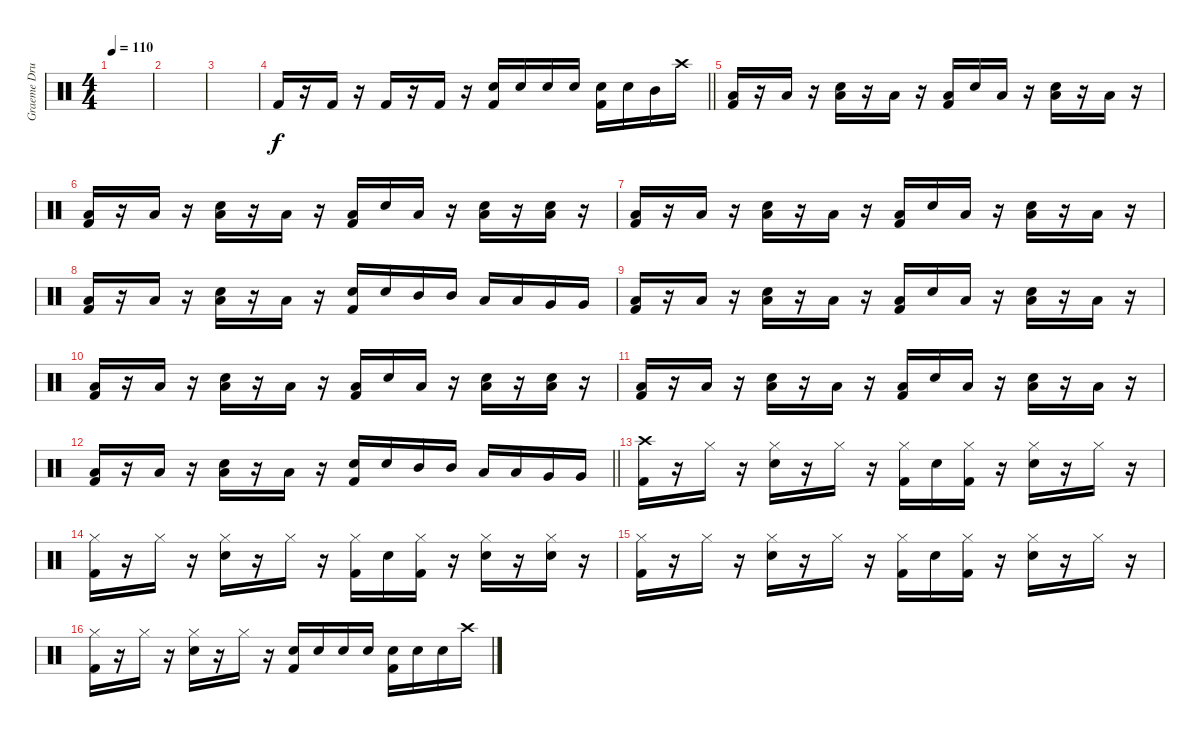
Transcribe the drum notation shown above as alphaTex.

\track ("Graeme Drums" "Graeme Dru") {instrument percussion}
\staff {score}
\articulation defaults
\ts (4 4)
\tempo 110
\clef neutral
\ks c
|
|
|
\barLineRight lightlight "Kick (hit) 2".16
r.16 "Kick (hit) 2".16 r.16 "Kick (hit) 2".16 r.16 "Kick (hit) 2".16 r.16 ("Kick (hit) 2" "Snare (hit) 2").16 "Snare (hit) 2".16 "Snare (hit) 2".16 "Snare (hit) 2".16 ("Kick (hit) 2" "Snare (hit) 2").16 "Snare (hit) 2".16 "Mid Tom (hit)".16 "Crash high (hit)".16 |
("Kick (hit) 2" "Low Tom (hit)").16 r.16 "Low Tom (hit)".16 r.16 ("Low Tom (hit)" "Snare (hit) 2").16 r.16 "Low Tom (hit)".16 r.16 ("Kick (hit) 2" "Low Tom (hit)").16 "Snare (hit) 2".16 "Low Tom (hit)".16 r.16 ("Low Tom (hit)" "Snare (hit) 2").16 r.16 "Low Tom (hit)".16 r.16 |
("Kick (hit) 2" "Low Tom (hit)").16 r.16 "Low Tom (hit)".16 r.16 ("Low Tom (hit)" "Snare (hit) 2").16 r.16 "Low Tom (hit)".16 r.16 ("Kick (hit) 2" "Low Tom (hit)").16 "Snare (hit) 2".16 "Low Tom (hit)".16 r.16 ("Low Tom (hit)" "Snare (hit) 2").16 r.16 ("Low Tom (hit)" "Snare (hit) 2").16 r.16 |
("Kick (hit) 2" "Low Tom (hit)").16 r.16 "Low Tom (hit)".16 r.16 ("Low Tom (hit)" "Snare (hit) 2").16 r.16 "Low Tom (hit)".16 r.16 ("Kick (hit) 2" "Low Tom (hit)").16 "Snare (hit) 2".16 "Low Tom (hit)".16 r.16 ("Low Tom (hit)" "Snare (hit) 2").16 r.16 "Low Tom (hit)".16 r.16 |
("Kick (hit) 2" "Low Tom (hit)").16 r.16 "Low Tom (hit)".16 r.16 ("Low Tom (hit)" "Snare (hit) 2").16 r.16 "Low Tom (hit)".16 r.16 ("Kick (hit) 2" "Snare (hit) 2").16 "Snare (hit) 2".16 "Mid Tom (hit)".16 "Mid Tom (hit)".16 "Low Tom (hit)".16 "Low Tom (hit)".16 "Very Low Tom (hit)".16 "Very Low Tom (hit)".16 |
("Kick (hit) 2" "Low Tom (hit)").16 r.16 "Low Tom (hit)".16 r.16 ("Low Tom (hit)" "Snare (hit) 2").16 r.16 "Low Tom (hit)".16 r.16 ("Kick (hit) 2" "Low Tom (hit)").16 "Snare (hit) 2".16 "Low Tom (hit)".16 r.16 ("Low Tom (hit)" "Snare (hit) 2").16 r.16 "Low Tom (hit)".16 r.16 |
("Kick (hit) 2" "Low Tom (hit)").16 r.16 "Low Tom (hit)".16 r.16 ("Low Tom (hit)" "Snare (hit) 2").16 r.16 "Low Tom (hit)".16 r.16 ("Kick (hit) 2" "Low Tom (hit)").16 "Snare (hit) 2".16 "Low Tom (hit)".16 r.16 ("Low Tom (hit)" "Snare (hit) 2").16 r.16 ("Low Tom (hit)" "Snare (hit) 2").16 r.16 |
("Kick (hit) 2" "Low Tom (hit)").16 r.16 "Low Tom (hit)".16 r.16 ("Low Tom (hit)" "Snare (hit) 2").16 r.16 "Low Tom (hit)".16 r.16 ("Kick (hit) 2" "Low Tom (hit)").16 "Snare (hit) 2".16 "Low Tom (hit)".16 r.16 ("Low Tom (hit)" "Snare (hit) 2").16 r.16 "Low Tom (hit)".16 r.16 |
\barLineRight lightlight
("Kick (hit) 2" "Low Tom (hit)").16 r.16 "Low Tom (hit)".16 r.16 ("Low Tom (hit)" "Snare (hit) 2").16 r.16 "Low Tom (hit)".16 r.16 ("Kick (hit) 2" "Snare (hit) 2").16 "Snare (hit) 2".16 "Mid Tom (hit)".16 "Mid Tom (hit)".16 "Low Tom (hit)".16 "Low Tom (hit)".16 "Very Low Tom (hit)".16 "Very Low Tom (hit)".16 |
("Kick (hit) 2" "Crash high (hit)").16 r.16 "Hi-Hat (closed)".16 r.16 ("Hi-Hat (closed)" "Snare (hit) 2").16 r.16 "Hi-Hat (closed)".16 r.16 ("Kick (hit) 2" "Hi-Hat (closed)").16 "Snare (hit) 2".16 ("Kick (hit) 2" "Hi-Hat (closed)").16 r.16 ("Hi-Hat (closed)" "Snare (hit) 2").16 r.16 "Hi-Hat (closed)".16 r.16 |
("Kick (hit) 2" "Hi-Hat (closed)").16 r.16 "Hi-Hat (closed)".16 r.16 ("Hi-Hat (closed)" "Snare (hit) 2").16 r.16 "Hi-Hat (closed)".16 r.16 ("Kick (hit) 2" "Hi-Hat (closed)").16 "Snare (hit) 2".16 ("Kick (hit) 2" "Hi-Hat (closed)").16 r.16 ("Hi-Hat (closed)" "Snare (hit) 2").16 r.16 ("Hi-Hat (closed)" "Snare (hit) 2").16 r.16 |
("Kick (hit) 2" "Hi-Hat (closed)").16 r.16 "Hi-Hat (closed)".16 r.16 ("Hi-Hat (closed)" "Snare (hit) 2").16 r.16 "Hi-Hat (closed)".16 r.16 ("Kick (hit) 2" "Hi-Hat (closed)").16 "Snare (hit) 2".16 ("Kick (hit) 2" "Hi-Hat (closed)").16 r.16 ("Hi-Hat (closed)" "Snare (hit) 2").16 r.16 "Hi-Hat (closed)".16 r.16 |
("Kick (hit) 2" "Hi-Hat (closed)").16 r.16 "Hi-Hat (closed)".16 r.16 ("Hi-Hat (closed)" "Snare (hit) 2").16 r.16 "Hi-Hat (closed)".16 r.16 ("Kick (hit) 2" "Snare (hit) 2").16 "Snare (hit) 2".16 "Snare (hit) 2".16 "Snare (hit) 2".16 ("Kick (hit) 2" "Snare (hit) 2").16 "Snare (hit) 2".16 "Snare (hit) 2".16 "Crash high (hit)".16
